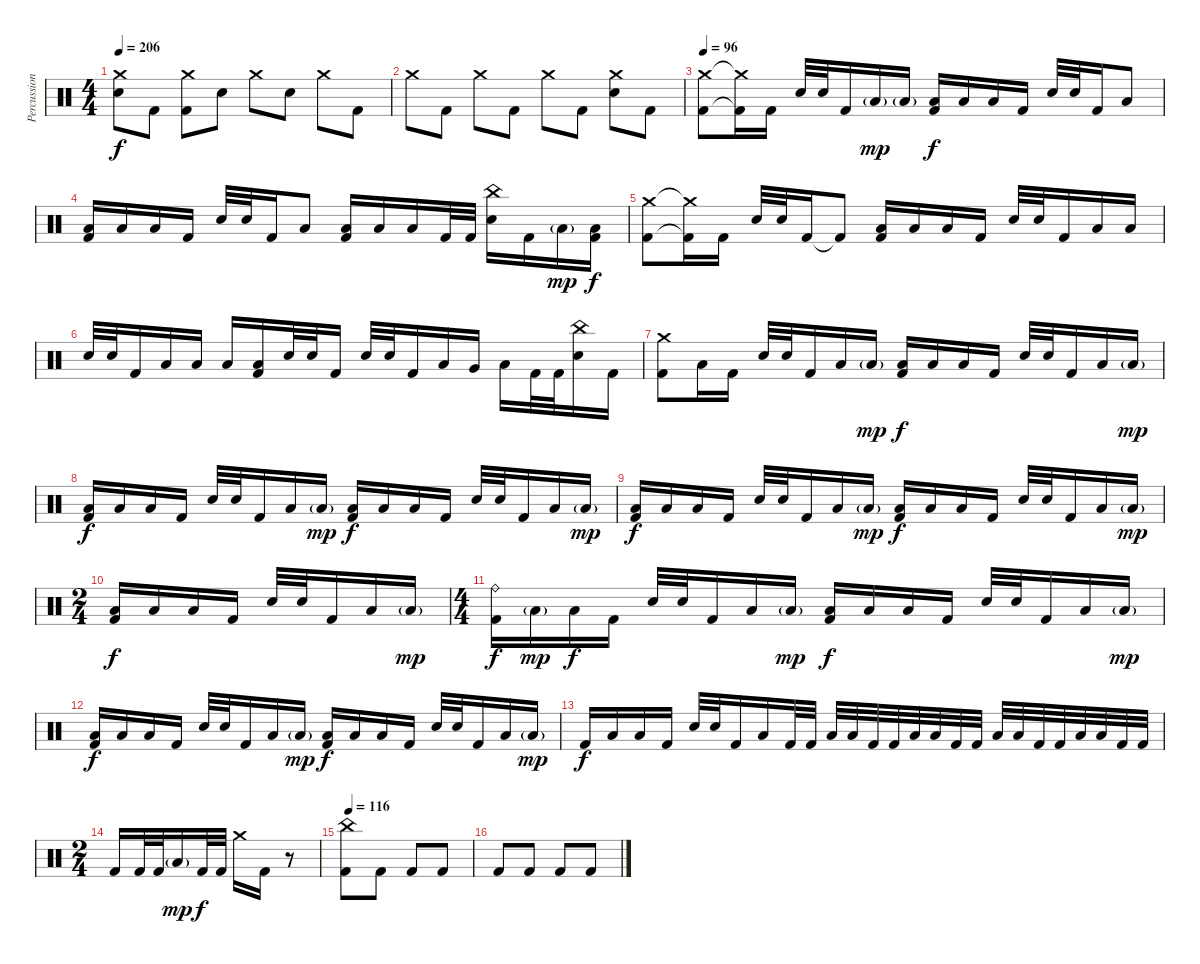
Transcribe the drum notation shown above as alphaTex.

\track ("Percussion" "Percussion") {instrument percussion}
\staff {score}
\articulation defaults
\ts (4 4)
\tempo 206
\clef neutral
\ks c
("Crash medium (hit)" "Electric Snare (hit)").8{dy f} "Kick (hit) 2".8 ("Crash medium (hit)" "Kick (hit) 2").8 "Electric Snare (hit)".8 "Crash medium (hit)".8 "Electric Snare (hit)".8 "Crash medium (hit)".8 "Kick (hit) 2".8 |
"Crash medium (hit)".8 "Kick (hit) 2".8 "Crash medium (hit)".8 "Kick (hit) 2".8 "Crash medium (hit)".8 "Kick (hit) 2".8 ("Crash medium (hit)" "Electric Snare (hit)").8 "Kick (hit) 2".8 |
\tempo 192
\tempo 96
("Crash medium (hit)" "Kick (hit) 2").8 ("Crash medium (hit)"{t} "Kick (hit) 2"{t}).16 "Kick (hit) 2".16 "Electric Snare (hit)".32 "Electric Snare (hit)".32 "Kick (hit) 2".16 "Low Floor Tom (hit)"{g}.16{dy mp} "Low Floor Tom (hit)"{g}.16 ("Low Floor Tom (hit)" "Kick (hit) 2").16{dy f} "Low Floor Tom (hit)".16 "Low Floor Tom (hit)".16 "Kick (hit) 2".16 "Electric Snare (hit)".32 "Electric Snare (hit)".32 "Kick (hit) 2".16 "Low Floor Tom (hit)".8 |
("Low Floor Tom (hit)" "Kick (hit) 2").16 "Low Floor Tom (hit)".16 "Low Floor Tom (hit)".16 "Kick (hit) 2".16 "Electric Snare (hit)".32 "Electric Snare (hit)".32 "Kick (hit) 2".16 "Low Floor Tom (hit)".8 ("Low Floor Tom (hit)" "Kick (hit) 2").16 "Low Floor Tom (hit)".16 "Low Floor Tom (hit)".16 "Kick (hit) 2".32 "Kick (hit) 2".32 ("China (hit)" "Electric Snare (hit)").16 "Kick (hit) 2".16 "Low Floor Tom (hit)"{g}.16{dy mp} ("Low Floor Tom (hit)" "Kick (hit) 2").16{dy f} |
("Crash medium (hit)" "Kick (hit) 2").8 ("Crash medium (hit)"{t} "Kick (hit) 2"{t}).16 "Kick (hit) 2".16 "Electric Snare (hit)".32 "Electric Snare (hit)".32 "Kick (hit) 2".16 "Kick (hit) 2"{t}.8 ("Low Floor Tom (hit)" "Kick (hit) 2").16 "Low Floor Tom (hit)".16 "Low Floor Tom (hit)".16 "Kick (hit) 2".16 "Electric Snare (hit)".32 "Electric Snare (hit)".32 "Kick (hit) 2".16 "Low Floor Tom (hit)".16 "Low Floor Tom (hit)".16 |
"Electric Snare (hit)".32 "Electric Snare (hit)".32 "Kick (hit) 2".16 "Low Floor Tom (hit)".16 "Low Floor Tom (hit)".16 "Low Tom (hit)".16 ("Low Tom (hit)" "Kick (hit) 2").16 "Electric Snare (hit)".32 "Electric Snare (hit)".32 "Kick (hit) 2".16 "Electric Snare (hit)".32 "Electric Snare (hit)".32 "Kick (hit) 2".16 "Low Tom (hit)".16 "Very Low Tom (hit)".16 "Low Floor Tom (hit)".16 "Kick (hit) 2".32 "Kick (hit) 2".32 ("China (hit)" "Electric Snare (hit)").16 "Kick (hit) 2".16 |
("Crash medium (hit)" "Kick (hit) 2").8 "Low Floor Tom (hit)".16 "Kick (hit) 2".16 "Electric Snare (hit)".32 "Electric Snare (hit)".32 "Kick (hit) 2".16 "Low Floor Tom (hit)".16 "Low Floor Tom (hit)"{g}.16{dy mp} ("Low Floor Tom (hit)" "Kick (hit) 2").16{dy f} "Low Floor Tom (hit)".16 "Low Floor Tom (hit)".16 "Kick (hit) 2".16 "Electric Snare (hit)".32 "Electric Snare (hit)".32 "Kick (hit) 2".16 "Low Floor Tom (hit)".16 "Low Floor Tom (hit)"{g}.16{dy mp} |
("Low Floor Tom (hit)" "Kick (hit) 2").16{dy f} "Low Floor Tom (hit)".16 "Low Floor Tom (hit)".16 "Kick (hit) 2".16 "Electric Snare (hit)".32 "Electric Snare (hit)".32 "Kick (hit) 2".16 "Low Floor Tom (hit)".16 "Low Floor Tom (hit)"{g}.16{dy mp} ("Low Floor Tom (hit)" "Kick (hit) 2").16{dy f} "Low Floor Tom (hit)".16 "Low Floor Tom (hit)".16 "Kick (hit) 2".16 "Electric Snare (hit)".32 "Electric Snare (hit)".32 "Kick (hit) 2".16 "Low Floor Tom (hit)".16 "Low Floor Tom (hit)"{g}.16{dy mp} |
("Low Floor Tom (hit)" "Kick (hit) 2").16{dy f} "Low Floor Tom (hit)".16 "Low Floor Tom (hit)".16 "Kick (hit) 2".16 "Electric Snare (hit)".32 "Electric Snare (hit)".32 "Kick (hit) 2".16 "Low Floor Tom (hit)".16 "Low Floor Tom (hit)"{g}.16{dy mp} ("Low Floor Tom (hit)" "Kick (hit) 2").16{dy f} "Low Floor Tom (hit)".16 "Low Floor Tom (hit)".16 "Kick (hit) 2".16 "Electric Snare (hit)".32 "Electric Snare (hit)".32 "Kick (hit) 2".16 "Low Floor Tom (hit)".16 "Low Floor Tom (hit)"{g}.16{dy mp} |
\ts (2 4)
("Low Floor Tom (hit)" "Kick (hit) 2").16{dy f} "Low Floor Tom (hit)".16 "Low Floor Tom (hit)".16 "Kick (hit) 2".16 "Electric Snare (hit)".32 "Electric Snare (hit)".32 "Kick (hit) 2".16 "Low Floor Tom (hit)".16 "Low Floor Tom (hit)"{g}.16{dy mp} |
\ts (4 4)
("Ride (bell)" "Kick (hit) 2").16{dy f} "Low Floor Tom (hit)"{g}.16{dy mp} "Low Floor Tom (hit)".16{dy f} "Kick (hit) 2".16 "Electric Snare (hit)".32 "Electric Snare (hit)".32 "Kick (hit) 2".16 "Low Floor Tom (hit)".16 "Low Floor Tom (hit)"{g}.16{dy mp} ("Low Floor Tom (hit)" "Kick (hit) 2").16{dy f} "Low Floor Tom (hit)".16 "Low Floor Tom (hit)".16 "Kick (hit) 2".16 "Electric Snare (hit)".32 "Electric Snare (hit)".32 "Kick (hit) 2".16 "Low Floor Tom (hit)".16 "Low Floor Tom (hit)"{g}.16{dy mp} |
("Low Floor Tom (hit)" "Kick (hit) 2").16{dy f} "Low Floor Tom (hit)".16 "Low Floor Tom (hit)".16 "Kick (hit) 2".16 "Electric Snare (hit)".32 "Electric Snare (hit)".32 "Kick (hit) 2".16 "Low Floor Tom (hit)".16 "Low Floor Tom (hit)"{g}.16{dy mp} ("Low Floor Tom (hit)" "Kick (hit) 2").16{dy f} "Low Floor Tom (hit)".16 "Low Floor Tom (hit)".16 "Kick (hit) 2".16 "Electric Snare (hit)".32 "Electric Snare (hit)".32 "Kick (hit) 2".16 "Low Floor Tom (hit)".16 "Low Floor Tom (hit)"{g}.16{dy mp} |
"Kick (hit) 2".16{dy f} "Low Floor Tom (hit)".16 "Low Floor Tom (hit)".16 "Kick (hit) 2".16 "Electric Snare (hit)".32 "Electric Snare (hit)".32 "Kick (hit) 2".16 "Low Floor Tom (hit)".16 "Kick (hit) 2".32 "Kick (hit) 2".32 "Low Tom (hit)".32 "Low Tom (hit)".32 "Kick (hit) 2".32 "Kick (hit) 2".32 "Low Floor Tom (hit)".32 "Low Floor Tom (hit)".32 "Kick (hit) 2".32 "Kick (hit) 2".32 "Low Tom (hit)".32 "Low Tom (hit)".32 "Kick (hit) 2".32 "Kick (hit) 2".32 "Low Floor Tom (hit)".32 "Low Floor Tom (hit)".32 "Kick (hit) 2".32 "Kick (hit) 2".32 |
\ts (2 4)
"Kick (hit) 2".16 "Kick (hit) 2".32 "Kick (hit) 2".32 "Low Floor Tom (hit)"{g}.16{dy mp} "Kick (hit) 2".32{dy f} "Kick (hit) 2".32 "Crash medium (hit)".16 "Kick (hit) 2".16 r.8 |
\tempo 116
("China (hit)" "Kick (hit) 2").8 "Kick (hit) 2".8 "Kick (hit) 2".8 "Kick (hit) 2".8 |
"Kick (hit) 2".8 "Kick (hit) 2".8 "Kick (hit) 2".8 "Kick (hit) 2".8
